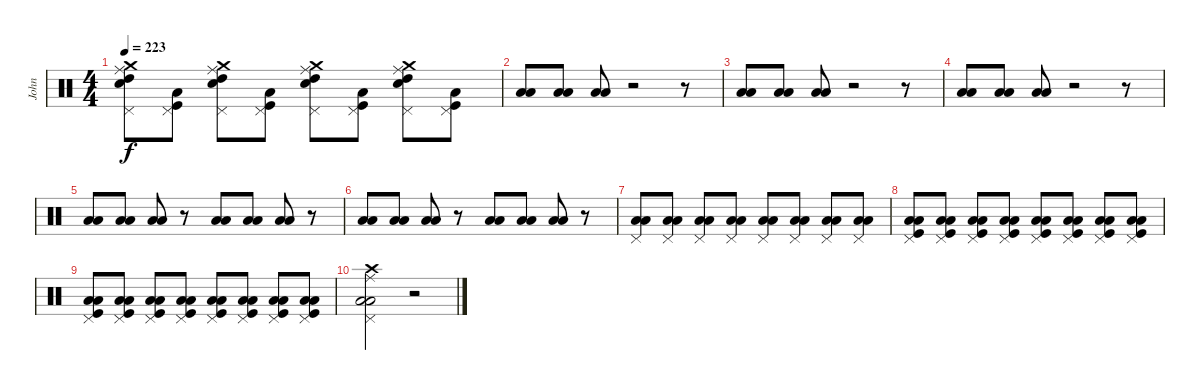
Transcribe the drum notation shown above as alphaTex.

\track ("John" "John") {instrument percussion}
\staff {score}
\articulation defaults
\ts (4 4)
\tempo 223
\clef neutral
\ks c
("Crash medium (hit)" "Ride (middle)" "Snare (hit) 2" "High Tom (hit)" "Pedal Hi-Hat (hit)").8{dy f} ("Kick (hit)" "Low Tom (hit)" "Pedal Hi-Hat (hit)").8 ("Crash medium (hit)" "Ride (middle)" "Snare (hit) 2" "High Tom (hit)" "Pedal Hi-Hat (hit)").8 ("Kick (hit)" "Low Tom (hit)" "Pedal Hi-Hat (hit)").8 ("Crash medium (hit)" "Ride (middle)" "Snare (hit) 2" "High Tom (hit)" "Pedal Hi-Hat (hit)").8 ("Kick (hit)" "Low Tom (hit)" "Pedal Hi-Hat (hit)").8 ("Crash medium (hit)" "Ride (middle)" "Snare (hit) 2" "High Tom (hit)" "Pedal Hi-Hat (hit)").8 ("Kick (hit)" "Low Tom (hit)" "Pedal Hi-Hat (hit)").8 |
("Low Tom (hit)" "Low Tom (hit)").8 ("Low Tom (hit)" "Low Tom (hit)").8 ("Low Tom (hit)" "Low Tom (hit)").8 r.2 r.8 |
("Low Tom (hit)" "Low Tom (hit)").8 ("Low Tom (hit)" "Low Tom (hit)").8 ("Low Tom (hit)" "Low Tom (hit)").8 r.2 r.8 |
("Low Tom (hit)" "Low Tom (hit)").8 ("Low Tom (hit)" "Low Tom (hit)").8 ("Low Tom (hit)" "Low Tom (hit)").8 r.2 r.8 |
("Low Tom (hit)" "Low Tom (hit)").8 ("Low Tom (hit)" "Low Tom (hit)").8 ("Low Tom (hit)" "Low Tom (hit)").8 r.8 ("Low Tom (hit)" "Low Tom (hit)").8 ("Low Tom (hit)" "Low Tom (hit)").8 ("Low Tom (hit)" "Low Tom (hit)").8 r.8 |
("Low Tom (hit)" "Low Tom (hit)").8 ("Low Tom (hit)" "Low Tom (hit)").8 ("Low Tom (hit)" "Low Tom (hit)").8 r.8 ("Low Tom (hit)" "Low Tom (hit)").8 ("Low Tom (hit)" "Low Tom (hit)").8 ("Low Tom (hit)" "Low Tom (hit)").8 r.8 |
("Low Tom (hit)" "Low Tom (hit)" "Pedal Hi-Hat (hit)").8 ("Low Tom (hit)" "Low Tom (hit)" "Pedal Hi-Hat (hit)").8 ("Low Tom (hit)" "Low Tom (hit)" "Pedal Hi-Hat (hit)").8 ("Low Tom (hit)" "Low Tom (hit)" "Pedal Hi-Hat (hit)").8 ("Low Tom (hit)" "Low Tom (hit)" "Pedal Hi-Hat (hit)").8 ("Low Tom (hit)" "Low Tom (hit)" "Pedal Hi-Hat (hit)").8 ("Low Tom (hit)" "Low Tom (hit)" "Pedal Hi-Hat (hit)").8 ("Low Tom (hit)" "Low Tom (hit)" "Pedal Hi-Hat (hit)").8 |
("Kick (hit)" "Low Tom (hit)" "Low Tom (hit)" "Pedal Hi-Hat (hit)").8 ("Kick (hit)" "Low Tom (hit)" "Low Tom (hit)" "Pedal Hi-Hat (hit)").8 ("Kick (hit)" "Low Tom (hit)" "Low Tom (hit)" "Pedal Hi-Hat (hit)").8 ("Kick (hit)" "Low Tom (hit)" "Low Tom (hit)" "Pedal Hi-Hat (hit)").8 ("Kick (hit)" "Low Tom (hit)" "Low Tom (hit)" "Pedal Hi-Hat (hit)").8 ("Kick (hit)" "Low Tom (hit)" "Low Tom (hit)" "Pedal Hi-Hat (hit)").8 ("Kick (hit)" "Low Tom (hit)" "Low Tom (hit)" "Pedal Hi-Hat (hit)").8 ("Kick (hit)" "Low Tom (hit)" "Low Tom (hit)" "Pedal Hi-Hat (hit)").8 |
("Kick (hit)" "Low Tom (hit)" "Low Tom (hit)" "Pedal Hi-Hat (hit)").8 ("Kick (hit)" "Low Tom (hit)" "Low Tom (hit)" "Pedal Hi-Hat (hit)").8 ("Kick (hit)" "Low Tom (hit)" "Low Tom (hit)" "Pedal Hi-Hat (hit)").8 ("Kick (hit)" "Low Tom (hit)" "Low Tom (hit)" "Pedal Hi-Hat (hit)").8 ("Kick (hit)" "Low Tom (hit)" "Low Tom (hit)" "Pedal Hi-Hat (hit)").8 ("Kick (hit)" "Low Tom (hit)" "Low Tom (hit)" "Pedal Hi-Hat (hit)").8 ("Kick (hit)" "Low Tom (hit)" "Low Tom (hit)" "Pedal Hi-Hat (hit)").8 ("Kick (hit)" "Low Tom (hit)" "Low Tom (hit)" "Pedal Hi-Hat (hit)").8 |
("Crash high (hit)" "Ride (middle)" "Low Tom (hit)" "Low Tom (hit)" "Pedal Hi-Hat (hit)").2 r.2
